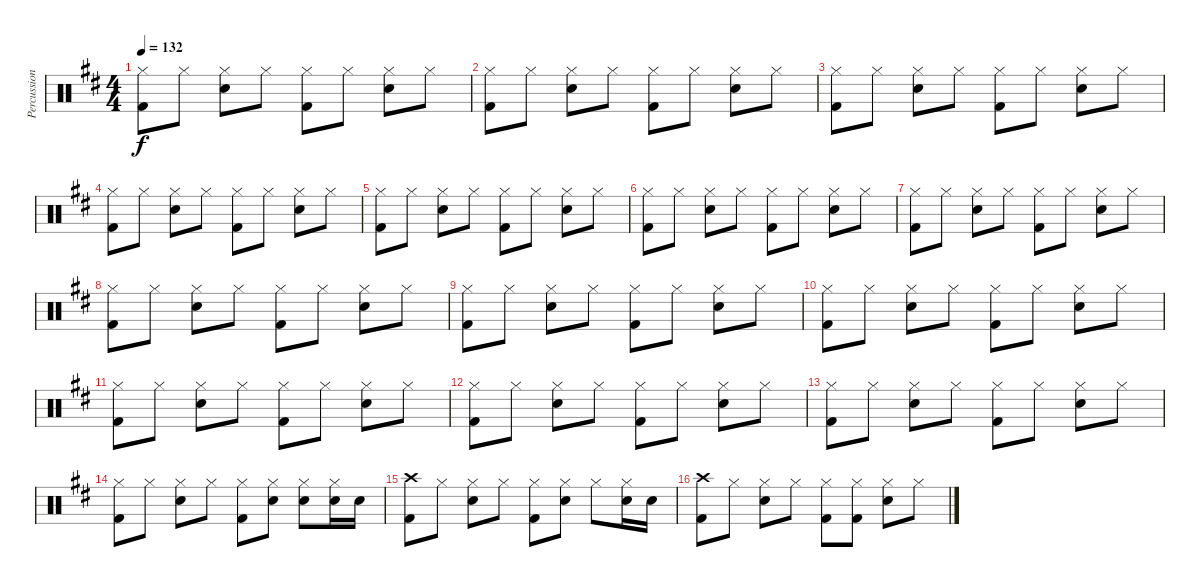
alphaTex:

\track ("Percussion" "Percussion") {instrument percussion}
\staff {score}
\articulation defaults
\ts (4 4)
\tempo 132
\clef neutral
\ks d
("Hi-Hat (closed)" "Kick (hit) 2").8{dy f} "Hi-Hat (closed)".8 ("Hi-Hat (closed)" "Electric Snare (hit)").8 "Hi-Hat (closed)".8 ("Hi-Hat (closed)" "Kick (hit) 2").8 "Hi-Hat (closed)".8 ("Hi-Hat (closed)" "Electric Snare (hit)").8 "Hi-Hat (closed)".8 |
("Hi-Hat (closed)" "Kick (hit) 2").8 "Hi-Hat (closed)".8 ("Hi-Hat (closed)" "Electric Snare (hit)").8 "Hi-Hat (closed)".8 ("Hi-Hat (closed)" "Kick (hit) 2").8 "Hi-Hat (closed)".8 ("Hi-Hat (closed)" "Electric Snare (hit)").8 "Hi-Hat (closed)".8 |
("Hi-Hat (closed)" "Kick (hit) 2").8 "Hi-Hat (closed)".8 ("Hi-Hat (closed)" "Electric Snare (hit)").8 "Hi-Hat (closed)".8 ("Hi-Hat (closed)" "Kick (hit) 2").8 "Hi-Hat (closed)".8 ("Hi-Hat (closed)" "Electric Snare (hit)").8 "Hi-Hat (closed)".8 |
("Hi-Hat (closed)" "Kick (hit) 2").8 "Hi-Hat (closed)".8 ("Hi-Hat (closed)" "Electric Snare (hit)").8 "Hi-Hat (closed)".8 ("Hi-Hat (closed)" "Kick (hit) 2").8 "Hi-Hat (closed)".8 ("Hi-Hat (closed)" "Electric Snare (hit)").8 "Hi-Hat (closed)".8 |
("Hi-Hat (closed)" "Kick (hit) 2").8 "Hi-Hat (closed)".8 ("Hi-Hat (closed)" "Electric Snare (hit)").8 "Hi-Hat (closed)".8 ("Hi-Hat (closed)" "Kick (hit) 2").8 "Hi-Hat (closed)".8 ("Hi-Hat (closed)" "Electric Snare (hit)").8 "Hi-Hat (closed)".8 |
("Hi-Hat (closed)" "Kick (hit) 2").8 "Hi-Hat (closed)".8 ("Hi-Hat (closed)" "Electric Snare (hit)").8 "Hi-Hat (closed)".8 ("Hi-Hat (closed)" "Kick (hit) 2").8 "Hi-Hat (closed)".8 ("Hi-Hat (closed)" "Electric Snare (hit)").8 "Hi-Hat (closed)".8 |
("Hi-Hat (closed)" "Kick (hit) 2").8 "Hi-Hat (closed)".8 ("Hi-Hat (closed)" "Electric Snare (hit)").8 "Hi-Hat (closed)".8 ("Hi-Hat (closed)" "Kick (hit) 2").8 "Hi-Hat (closed)".8 ("Hi-Hat (closed)" "Electric Snare (hit)").8 "Hi-Hat (closed)".8 |
("Hi-Hat (closed)" "Kick (hit) 2").8 "Hi-Hat (closed)".8 ("Hi-Hat (closed)" "Electric Snare (hit)").8 "Hi-Hat (closed)".8 ("Hi-Hat (closed)" "Kick (hit) 2").8 "Hi-Hat (closed)".8 ("Hi-Hat (closed)" "Electric Snare (hit)").8 "Hi-Hat (closed)".8 |
("Hi-Hat (closed)" "Kick (hit) 2").8 "Hi-Hat (closed)".8 ("Hi-Hat (closed)" "Electric Snare (hit)").8 "Hi-Hat (closed)".8 ("Hi-Hat (closed)" "Kick (hit) 2").8 "Hi-Hat (closed)".8 ("Hi-Hat (closed)" "Electric Snare (hit)").8 "Hi-Hat (closed)".8 |
("Hi-Hat (closed)" "Kick (hit) 2").8 "Hi-Hat (closed)".8 ("Hi-Hat (closed)" "Electric Snare (hit)").8 "Hi-Hat (closed)".8 ("Hi-Hat (closed)" "Kick (hit) 2").8 "Hi-Hat (closed)".8 ("Hi-Hat (closed)" "Electric Snare (hit)").8 "Hi-Hat (closed)".8 |
("Hi-Hat (closed)" "Kick (hit) 2").8 "Hi-Hat (closed)".8 ("Hi-Hat (closed)" "Electric Snare (hit)").8 "Hi-Hat (closed)".8 ("Hi-Hat (closed)" "Kick (hit) 2").8 "Hi-Hat (closed)".8 ("Hi-Hat (closed)" "Electric Snare (hit)").8 "Hi-Hat (closed)".8 |
("Hi-Hat (closed)" "Kick (hit) 2").8 "Hi-Hat (closed)".8 ("Hi-Hat (closed)" "Electric Snare (hit)").8 "Hi-Hat (closed)".8 ("Hi-Hat (closed)" "Kick (hit) 2").8 "Hi-Hat (closed)".8 ("Hi-Hat (closed)" "Electric Snare (hit)").8 "Hi-Hat (closed)".8 |
("Hi-Hat (closed)" "Kick (hit) 2").8 "Hi-Hat (closed)".8 ("Hi-Hat (closed)" "Electric Snare (hit)").8 "Hi-Hat (closed)".8 ("Hi-Hat (closed)" "Kick (hit) 2").8 "Hi-Hat (closed)".8 ("Hi-Hat (closed)" "Electric Snare (hit)").8 "Hi-Hat (closed)".8 |
("Hi-Hat (closed)" "Kick (hit) 2").8 "Hi-Hat (closed)".8 ("Hi-Hat (closed)" "Electric Snare (hit)").8 "Hi-Hat (closed)".8 ("Hi-Hat (closed)" "Kick (hit) 2").8 ("Hi-Hat (closed)" "Electric Snare (hit)").8 ("Hi-Hat (closed)" "Electric Snare (hit)").8 ("Hi-Hat (closed)" "Electric Snare (hit)").16 "Electric Snare (hit)".16 |
("Crash high (hit)" "Kick (hit) 2").8 "Hi-Hat (closed)".8 ("Hi-Hat (closed)" "Electric Snare (hit)").8 "Hi-Hat (closed)".8 ("Hi-Hat (closed)" "Kick (hit) 2").8 ("Hi-Hat (closed)" "Electric Snare (hit)").8 "Hi-Hat (closed)".8 ("Hi-Hat (closed)" "Electric Snare (hit)").16 "Electric Snare (hit)".16 |
("Crash high (hit)" "Kick (hit) 2").8 "Hi-Hat (closed)".8 ("Hi-Hat (closed)" "Electric Snare (hit)").8 "Hi-Hat (closed)".8 ("Hi-Hat (closed)" "Kick (hit) 2").8 ("Hi-Hat (closed)" "Kick (hit) 2").8 ("Hi-Hat (closed)" "Electric Snare (hit)").8 "Hi-Hat (closed)".8
